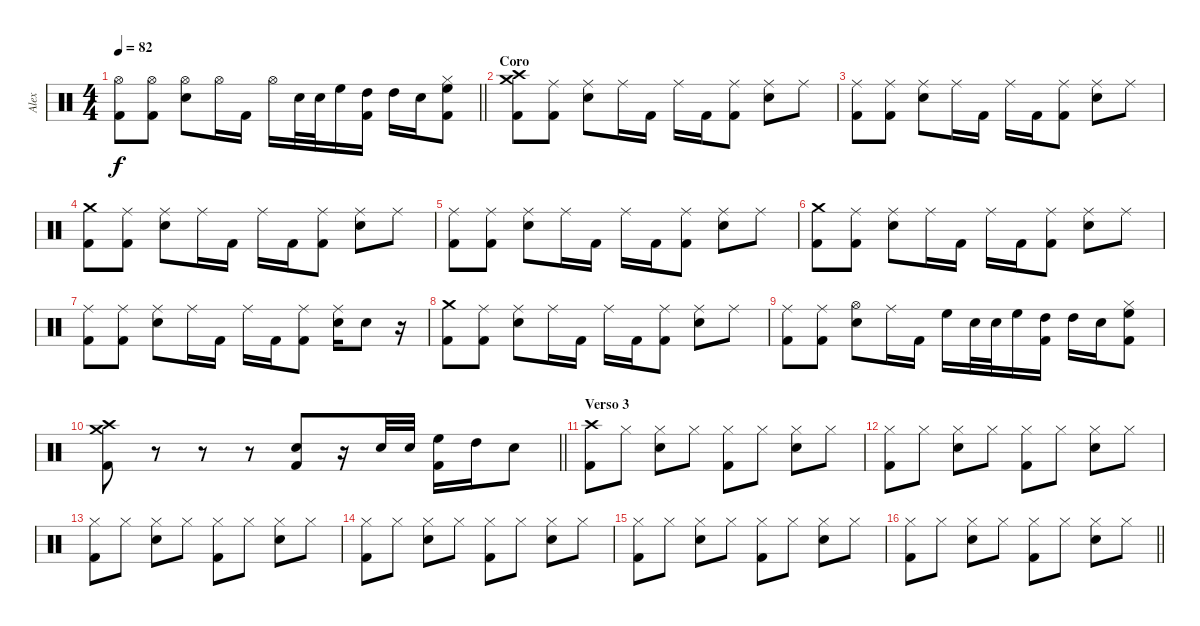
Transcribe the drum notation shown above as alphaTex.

\track ("Alex" "Alex") {instrument percussion}
\staff {score}
\articulation defaults
\ts (4 4)
\tempo 82
\clef neutral
\barLineRight lightlight
\ks c
("Hi-Hat (open)" "Kick (hit) 2").8{dy f} ("Hi-Hat (open)" "Kick (hit) 2").8 ("Hi-Hat (open)" "Electric Snare (hit)").8 "Hi-Hat (open)".16 "Kick (hit) 2".16 "Hi-Hat (open)".16 "Electric Snare (hit)".32 "Electric Snare (hit)".32 "High Floor Tom (hit)".16 ("Kick (hit) 2" "High Tom (hit)").16 "High Tom (hit)".16 "Electric Snare (hit)".16 ("Kick (hit) 2" "High Floor Tom (hit)" "Hi-Hat (closed)").8 |
\section ("" "Coro")
("Crash medium (hit)" "Crash high (hit)" "Kick (hit) 2").8 ("Ride (middle)" "Kick (hit) 2").8 ("Ride (middle)" "Electric Snare (hit)").8 "Ride (middle)".16 "Kick (hit) 2".16 "Ride (middle)".16 "Kick (hit) 2".16 ("Ride (middle)" "Kick (hit) 2").8 ("Ride (middle)" "Electric Snare (hit)").8 "Ride (middle)".8 |
("Ride (middle)" "Kick (hit) 2").8 ("Ride (middle)" "Kick (hit) 2").8 ("Ride (middle)" "Electric Snare (hit)").8 "Ride (middle)".16 "Kick (hit) 2".16 "Ride (middle)".16 "Kick (hit) 2".16 ("Ride (middle)" "Kick (hit) 2").8 ("Ride (middle)" "Electric Snare (hit)").8 "Ride (middle)".8 |
("Crash medium (hit)" "Kick (hit) 2").8 ("Ride (middle)" "Kick (hit) 2").8 ("Ride (middle)" "Electric Snare (hit)").8 "Ride (middle)".16 "Kick (hit) 2".16 "Ride (middle)".16 "Kick (hit) 2".16 ("Ride (middle)" "Kick (hit) 2").8 ("Ride (middle)" "Electric Snare (hit)").8 "Ride (middle)".8 |
("Ride (middle)" "Kick (hit) 2").8 ("Ride (middle)" "Kick (hit) 2").8 ("Ride (middle)" "Electric Snare (hit)").8 "Ride (middle)".16 "Kick (hit) 2".16 "Ride (middle)".16 "Kick (hit) 2".16 ("Ride (middle)" "Kick (hit) 2").8 ("Ride (middle)" "Electric Snare (hit)").8 "Ride (middle)".8 |
("Crash medium (hit)" "Kick (hit) 2").8 ("Ride (middle)" "Kick (hit) 2").8 ("Ride (middle)" "Electric Snare (hit)").8 "Ride (middle)".16 "Kick (hit) 2".16 "Ride (middle)".16 "Kick (hit) 2".16 ("Ride (middle)" "Kick (hit) 2").8 ("Ride (middle)" "Electric Snare (hit)").8 "Ride (middle)".8 |
("Ride (middle)" "Kick (hit) 2").8 ("Ride (middle)" "Kick (hit) 2").8 ("Ride (middle)" "Electric Snare (hit)").8 "Ride (middle)".16 "Kick (hit) 2".16 "Ride (middle)".16 "Kick (hit) 2".16 ("Ride (middle)" "Kick (hit) 2").8 ("Ride (middle)" "Electric Snare (hit)").16 "Electric Snare (hit)".8 r.16 |
("Crash medium (hit)" "Kick (hit) 2").8 ("Ride (middle)" "Kick (hit) 2").8 ("Ride (middle)" "Electric Snare (hit)").8 "Ride (middle)".16 "Kick (hit) 2".16 "Ride (middle)".16 "Kick (hit) 2".16 ("Ride (middle)" "Kick (hit) 2").8 ("Ride (middle)" "Electric Snare (hit)").8 "Ride (middle)".8 |
("Ride (middle)" "Kick (hit) 2").8 ("Ride (middle)" "Kick (hit) 2").8 ("Hi-Hat (open)" "Electric Snare (hit)").8 "Ride (middle)".16 "Kick (hit) 2".16 "High Floor Tom (hit)".16 "Electric Snare (hit)".32 "Electric Snare (hit)".32 "High Floor Tom (hit)".16 ("Kick (hit) 2" "High Tom (hit)").16 "High Tom (hit)".16 "Electric Snare (hit)".16 ("Kick (hit) 2" "High Floor Tom (hit)" "Hi-Hat (closed)").8 |
\barLineRight lightlight
("Crash high (hit)" "Crash medium (hit)" "Kick (hit) 2").8 r.8 r.8 r.8 ("Kick (hit) 2" "Electric Snare (hit)").8 r.16 "Electric Snare (hit)".32 "Electric Snare (hit)".32 ("Kick (hit) 2" "High Floor Tom (hit)").16 "High Tom (hit)".16 "Electric Snare (hit)".8 |
\section ("" "Verso 3")
("Crash high (hit)" "Kick (hit) 2").8 "Hi-Hat (closed)".8 ("Hi-Hat (closed)" "Electric Snare (hit)").8 "Hi-Hat (closed)".8 ("Hi-Hat (closed)" "Kick (hit) 2").8 "Hi-Hat (closed)".8 ("Hi-Hat (closed)" "Electric Snare (hit)").8 "Hi-Hat (closed)".8 |
("Hi-Hat (closed)" "Kick (hit) 2").8 "Hi-Hat (closed)".8 ("Hi-Hat (closed)" "Electric Snare (hit)").8 "Hi-Hat (closed)".8 ("Hi-Hat (closed)" "Kick (hit) 2").8 "Hi-Hat (closed)".8 ("Hi-Hat (closed)" "Electric Snare (hit)").8 "Hi-Hat (closed)".8 |
("Hi-Hat (closed)" "Kick (hit) 2").8 "Hi-Hat (closed)".8 ("Hi-Hat (closed)" "Electric Snare (hit)").8 "Hi-Hat (closed)".8 ("Hi-Hat (closed)" "Kick (hit) 2").8 "Hi-Hat (closed)".8 ("Hi-Hat (closed)" "Electric Snare (hit)").8 "Hi-Hat (closed)".8 |
("Hi-Hat (closed)" "Kick (hit) 2").8 "Hi-Hat (closed)".8 ("Hi-Hat (closed)" "Electric Snare (hit)").8 "Hi-Hat (closed)".8 ("Hi-Hat (closed)" "Kick (hit) 2").8 "Hi-Hat (closed)".8 ("Hi-Hat (closed)" "Electric Snare (hit)").8 "Hi-Hat (closed)".8 |
("Hi-Hat (closed)" "Kick (hit) 2").8 "Hi-Hat (closed)".8 ("Hi-Hat (closed)" "Electric Snare (hit)").8 "Hi-Hat (closed)".8 ("Hi-Hat (closed)" "Kick (hit) 2").8 "Hi-Hat (closed)".8 ("Hi-Hat (closed)" "Electric Snare (hit)").8 "Hi-Hat (closed)".8 |
\barLineRight lightlight
("Hi-Hat (closed)" "Kick (hit) 2").8 "Hi-Hat (closed)".8 ("Hi-Hat (closed)" "Electric Snare (hit)").8 "Hi-Hat (closed)".8 ("Hi-Hat (closed)" "Kick (hit) 2").8 "Hi-Hat (closed)".8 ("Hi-Hat (closed)" "Electric Snare (hit)").8 "Hi-Hat (closed)".8
